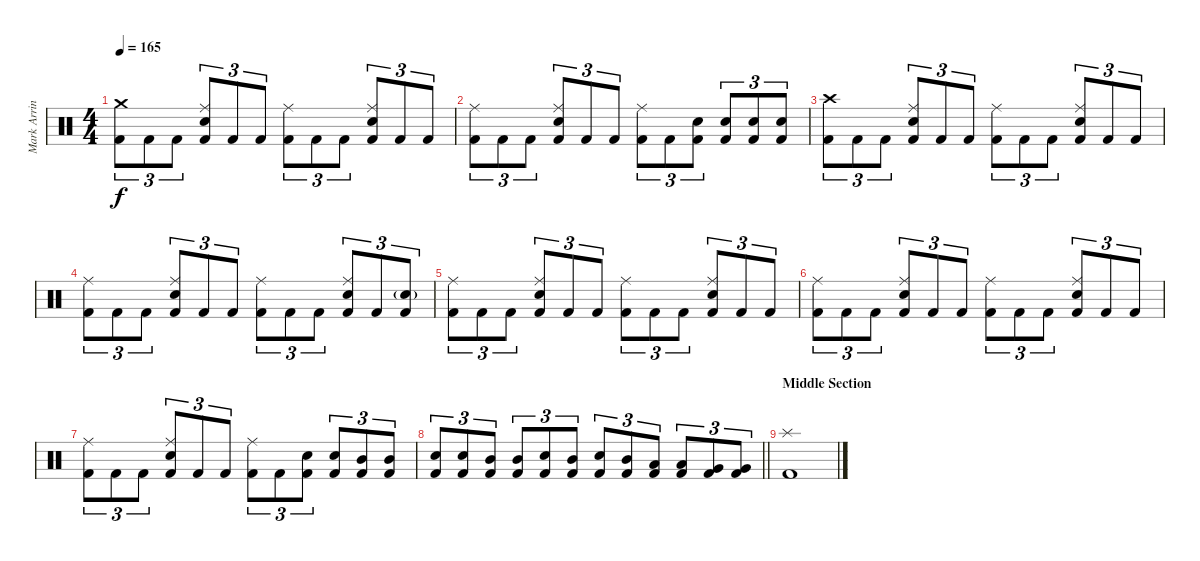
\track ("Mark Arrington Drums" "Mark Arrin") {instrument percussion}
\staff {score}
\articulation defaults
\ts (4 4)
\tempo 165
\clef neutral
\ks c
("Crash medium (hit)" "Kick (hit) 2").8{tu (3 2) dy f} "Kick (hit) 2".8{tu (3 2)} "Kick (hit) 2".8{tu (3 2)} ("Ride (middle)" "Electric Snare (hit)" "Kick (hit) 2").8{tu (3 2)} "Kick (hit) 2".8{tu (3 2)} "Kick (hit) 2".8{tu (3 2)} ("Ride (middle)" "Kick (hit) 2").8{tu (3 2)} "Kick (hit) 2".8{tu (3 2)} "Kick (hit) 2".8{tu (3 2)} ("Ride (middle)" "Electric Snare (hit)" "Kick (hit) 2").8{tu (3 2)} "Kick (hit) 2".8{tu (3 2)} "Kick (hit) 2".8{tu (3 2)} |
("Ride (middle)" "Kick (hit) 2").8{tu (3 2)} "Kick (hit) 2".8{tu (3 2)} "Kick (hit) 2".8{tu (3 2)} ("Ride (middle)" "Electric Snare (hit)" "Kick (hit) 2").8{tu (3 2)} "Kick (hit) 2".8{tu (3 2)} "Kick (hit) 2".8{tu (3 2)} ("Ride (middle)" "Kick (hit) 2").8{tu (3 2)} "Kick (hit) 2".8{tu (3 2)} ("Electric Snare (hit)" "Kick (hit) 2").8{tu (3 2)} ("Electric Snare (hit)" "Kick (hit) 2").8{tu (3 2)} ("Electric Snare (hit)" "Kick (hit) 2").8{tu (3 2)} ("Electric Snare (hit)" "Kick (hit) 2").8{tu (3 2)} |
("Crash high (hit)" "Kick (hit) 2").8{tu (3 2)} "Kick (hit) 2".8{tu (3 2)} "Kick (hit) 2".8{tu (3 2)} ("Ride (middle)" "Electric Snare (hit)" "Kick (hit) 2").8{tu (3 2)} "Kick (hit) 2".8{tu (3 2)} "Kick (hit) 2".8{tu (3 2)} ("Ride (middle)" "Kick (hit) 2").8{tu (3 2)} "Kick (hit) 2".8{tu (3 2)} "Kick (hit) 2".8{tu (3 2)} ("Ride (middle)" "Electric Snare (hit)" "Kick (hit) 2").8{tu (3 2)} "Kick (hit) 2".8{tu (3 2)} "Kick (hit) 2".8{tu (3 2)} |
("Ride (middle)" "Kick (hit) 2").8{tu (3 2)} "Kick (hit) 2".8{tu (3 2)} "Kick (hit) 2".8{tu (3 2)} ("Ride (middle)" "Electric Snare (hit)" "Kick (hit) 2").8{tu (3 2)} "Kick (hit) 2".8{tu (3 2)} "Kick (hit) 2".8{tu (3 2)} ("Ride (middle)" "Kick (hit) 2").8{tu (3 2)} "Kick (hit) 2".8{tu (3 2)} "Kick (hit) 2".8{tu (3 2)} ("Ride (middle)" "Electric Snare (hit)" "Kick (hit) 2").8{tu (3 2)} "Kick (hit) 2".8{tu (3 2)} ("Electric Snare (hit)"{g} "Kick (hit) 2").8{tu (3 2)} |
("Ride (middle)" "Kick (hit) 2").8{tu (3 2)} "Kick (hit) 2".8{tu (3 2)} "Kick (hit) 2".8{tu (3 2)} ("Ride (middle)" "Electric Snare (hit)" "Kick (hit) 2").8{tu (3 2)} "Kick (hit) 2".8{tu (3 2)} "Kick (hit) 2".8{tu (3 2)} ("Ride (middle)" "Kick (hit) 2").8{tu (3 2)} "Kick (hit) 2".8{tu (3 2)} "Kick (hit) 2".8{tu (3 2)} ("Ride (middle)" "Electric Snare (hit)" "Kick (hit) 2").8{tu (3 2)} "Kick (hit) 2".8{tu (3 2)} "Kick (hit) 2".8{tu (3 2)} |
("Ride (middle)" "Kick (hit) 2").8{tu (3 2)} "Kick (hit) 2".8{tu (3 2)} "Kick (hit) 2".8{tu (3 2)} ("Ride (middle)" "Electric Snare (hit)" "Kick (hit) 2").8{tu (3 2)} "Kick (hit) 2".8{tu (3 2)} "Kick (hit) 2".8{tu (3 2)} ("Ride (middle)" "Kick (hit) 2").8{tu (3 2)} "Kick (hit) 2".8{tu (3 2)} "Kick (hit) 2".8{tu (3 2)} ("Ride (middle)" "Electric Snare (hit)" "Kick (hit) 2").8{tu (3 2)} "Kick (hit) 2".8{tu (3 2)} "Kick (hit) 2".8{tu (3 2)} |
("Ride (middle)" "Kick (hit) 2").8{tu (3 2)} "Kick (hit) 2".8{tu (3 2)} "Kick (hit) 2".8{tu (3 2)} ("Ride (middle)" "Electric Snare (hit)" "Kick (hit) 2").8{tu (3 2)} "Kick (hit) 2".8{tu (3 2)} "Kick (hit) 2".8{tu (3 2)} ("Ride (middle)" "Kick (hit) 2").8{tu (3 2)} "Kick (hit) 2".8{tu (3 2)} ("Electric Snare (hit)" "Kick (hit) 2").8{tu (3 2)} ("Electric Snare (hit)" "Kick (hit) 2").8{tu (3 2)} ("Mid Tom (hit)" "Kick (hit) 2").8{tu (3 2)} ("Mid Tom (hit)" "Kick (hit) 2").8{tu (3 2)} |
\barLineRight lightlight
("Electric Snare (hit)" "Kick (hit) 2").8{tu (3 2)} ("Electric Snare (hit)" "Kick (hit) 2").8{tu (3 2)} ("Mid Tom (hit)" "Kick (hit) 2").8{tu (3 2)} ("Mid Tom (hit)" "Kick (hit) 2").8{tu (3 2)} ("Electric Snare (hit)" "Kick (hit) 2").8{tu (3 2)} ("Mid Tom (hit)" "Kick (hit) 2").8{tu (3 2)} ("Electric Snare (hit)" "Kick (hit) 2").8{tu (3 2)} ("Mid Tom (hit)" "Kick (hit) 2").8{tu (3 2)} ("Low Tom (hit)" "Kick (hit) 2").8{tu (3 2)} ("Low Tom (hit)" "Kick (hit) 2").8{tu (3 2)} ("Very Low Tom (hit)" "Kick (hit) 2").8{tu (3 2)} ("Very Low Tom (hit)" "Kick (hit) 2").8{tu (3 2)} |
\section ("" "Middle Section")
("Splash (hit)" "Kick (hit) 2").1
